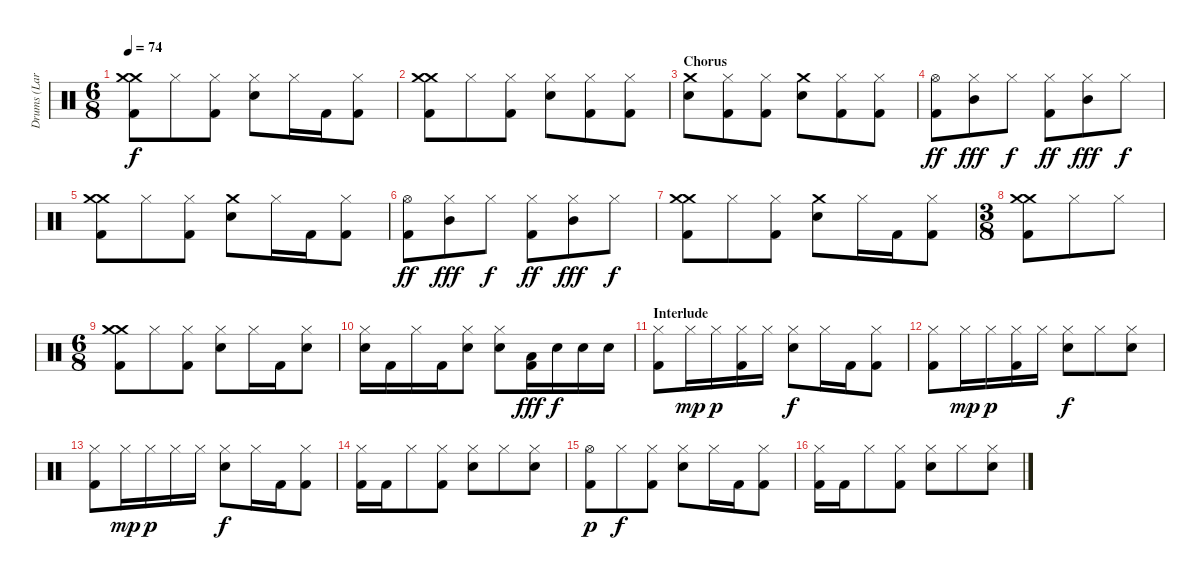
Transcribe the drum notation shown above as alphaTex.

\track ("Drums (Lars Ulrich)" "Drums (Lar") {instrument percussion}
\staff {score}
\articulation defaults
\ts (6 8)
\tempo 74
\clef neutral
\ks c
("Crash medium (hit)" "Crash medium (hit)" "Kick (hit) 2").8{dy f} "Hi-Hat (closed)".8 ("Hi-Hat (closed)" "Kick (hit) 2").8 ("Hi-Hat (closed)" "Snare (hit) 2").8 "Hi-Hat (closed)".16 "Kick (hit) 2".16 ("Hi-Hat (closed)" "Kick (hit) 2").8 |
("Crash medium (hit)" "Crash medium (hit)" "Kick (hit) 2").8 "Hi-Hat (closed)".8 ("Hi-Hat (closed)" "Kick (hit) 2").8 ("Hi-Hat (closed)" "Snare (hit) 2").8 ("Hi-Hat (closed)" "Kick (hit) 2").8 ("Hi-Hat (closed)" "Kick (hit) 2").8 |
\section ("" "Chorus")
("Crash medium (hit)" "Snare (hit) 2").8 ("Hi-Hat (closed)" "Kick (hit) 2").8 ("Hi-Hat (closed)" "Kick (hit) 2").8 ("Crash medium (hit)" "Snare (hit) 2").8 ("Hi-Hat (closed)" "Kick (hit) 2").8 ("Hi-Hat (closed)" "Kick (hit) 2").8 |
("Hi-Hat (open)" "Kick (hit) 2").8{dy ff} ("Hi-Hat (closed)" "Mid Tom (hit)").8{dy fff} "Hi-Hat (closed)".8{dy f} ("Hi-Hat (closed)" "Kick (hit) 2").8{dy ff} ("Hi-Hat (closed)" "Mid Tom (hit)").8{dy fff} "Hi-Hat (closed)".8{dy f} |
("Crash medium (hit)" "Crash medium (hit)" "Kick (hit) 2").8 "Hi-Hat (closed)".8 ("Hi-Hat (closed)" "Kick (hit) 2").8 ("Crash medium (hit)" "Snare (hit) 2").8 "Hi-Hat (closed)".16 "Kick (hit) 2".16 ("Hi-Hat (closed)" "Kick (hit) 2").8 |
("Hi-Hat (open)" "Kick (hit) 2").8{dy ff} ("Hi-Hat (closed)" "Mid Tom (hit)").8{dy fff} "Hi-Hat (closed)".8{dy f} ("Hi-Hat (closed)" "Kick (hit) 2").8{dy ff} ("Hi-Hat (closed)" "Mid Tom (hit)").8{dy fff} "Hi-Hat (closed)".8{dy f} |
("Crash medium (hit)" "Crash medium (hit)" "Kick (hit) 2").8 "Hi-Hat (closed)".8 ("Hi-Hat (closed)" "Kick (hit) 2").8 ("Crash medium (hit)" "Snare (hit) 2").8 "Hi-Hat (closed)".16 "Kick (hit) 2".16 ("Hi-Hat (closed)" "Kick (hit) 2").8 |
\ts (3 8)
("Crash medium (hit)" "Crash medium (hit)" "Kick (hit) 2").8 "Hi-Hat (closed)".8 "Hi-Hat (closed)".8 |
\ts (6 8)
("Crash medium (hit)" "Crash medium (hit)" "Kick (hit) 2").8 "Hi-Hat (closed)".8 ("Hi-Hat (closed)" "Kick (hit) 2").8 ("Hi-Hat (closed)" "Snare (hit) 2").8 "Hi-Hat (closed)".16 "Kick (hit) 2".16 ("Hi-Hat (closed)" "Snare (hit) 2").8 |
("Hi-Hat (closed)" "Snare (hit) 2").16 "Kick (hit) 2".16 "Hi-Hat (closed)".16 "Kick (hit) 2".16 ("Hi-Hat (closed)" "Snare (hit) 2").8 ("Hi-Hat (closed)" "Snare (hit) 2").8 ("Low Tom (hit)" "Kick (hit) 2").16{dy fff} "Snare (hit) 2".16{dy f} "Snare (hit) 2".16 "Snare (hit) 2".16 |
\section ("" "Interlude")
("Hi-Hat (closed)" "Kick (hit) 2").8 "Hi-Hat (closed)".16{dy mp} "Hi-Hat (closed)".16{dy p} ("Hi-Hat (closed)" "Kick (hit) 2").16 "Hi-Hat (closed)".16 ("Hi-Hat (closed)" "Snare (hit) 2").8{dy f} "Hi-Hat (closed)".16 "Kick (hit) 2".16 ("Hi-Hat (closed)" "Kick (hit) 2").8 |
("Hi-Hat (closed)" "Kick (hit) 2").8 "Hi-Hat (closed)".16{dy mp} "Hi-Hat (closed)".16{dy p} ("Hi-Hat (closed)" "Kick (hit) 2").16 "Hi-Hat (closed)".16 ("Hi-Hat (closed)" "Snare (hit) 2").8{dy f} "Hi-Hat (closed)".8 ("Hi-Hat (closed)" "Snare (hit) 2").8 |
("Hi-Hat (closed)" "Kick (hit) 2").8 "Hi-Hat (closed)".16{dy mp} "Hi-Hat (closed)".16{dy p} "Hi-Hat (closed)".16 "Hi-Hat (closed)".16 ("Hi-Hat (closed)" "Snare (hit) 2").8{dy f} "Hi-Hat (closed)".16 "Kick (hit) 2".16 ("Hi-Hat (closed)" "Kick (hit) 2").8 |
("Hi-Hat (closed)" "Kick (hit) 2").16 "Kick (hit) 2".16 "Hi-Hat (closed)".8 ("Hi-Hat (closed)" "Kick (hit) 2").8 ("Hi-Hat (closed)" "Snare (hit) 2").8 "Hi-Hat (closed)".8 ("Hi-Hat (closed)" "Snare (hit) 2").8 |
("Hi-Hat (open)" "Kick (hit) 2").8{dy p} "Hi-Hat (closed)".8{dy f} ("Hi-Hat (closed)" "Kick (hit) 2").8 ("Hi-Hat (closed)" "Snare (hit) 2").8 "Hi-Hat (closed)".16 "Kick (hit) 2".16 ("Hi-Hat (closed)" "Kick (hit) 2").8 |
("Hi-Hat (closed)" "Kick (hit) 2").16 "Kick (hit) 2".16 "Hi-Hat (closed)".8 ("Hi-Hat (closed)" "Kick (hit) 2").8 ("Hi-Hat (closed)" "Snare (hit) 2").8 "Hi-Hat (closed)".8 ("Hi-Hat (closed)" "Snare (hit) 2").8
